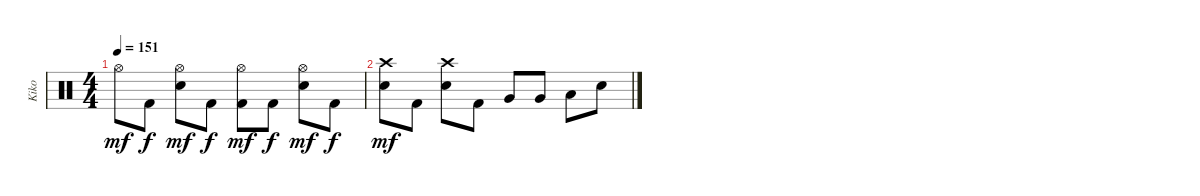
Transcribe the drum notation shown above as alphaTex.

\track ("Kiko" "Kiko") {instrument percussion}
\staff {score}
\articulation defaults
\ts (4 4)
\tempo 151
\clef neutral
\ks c "Hi-Hat (open)".8{dy mf} "Kick (hit) 2".8{dy f}
("Hi-Hat (open)" "Electric Snare (hit)").8{dy mf} "Kick (hit) 2".8{dy f} ("Hi-Hat (open)" "Kick (hit) 2").8{dy mf} "Kick (hit) 2".8{dy f} ("Hi-Hat (open)" "Electric Snare (hit)").8{dy mf} "Kick (hit) 2".8{dy f} |
("Crash high (hit)" "Electric Snare (hit)").8{dy mf} "Kick (hit) 2".8 ("Crash high (hit)" "Electric Snare (hit)").8 "Kick (hit) 2".8 "Very Low Tom (hit)".8 "Very Low Tom (hit)".8 "Low Tom (hit)".8 "Electric Snare (hit)".8
